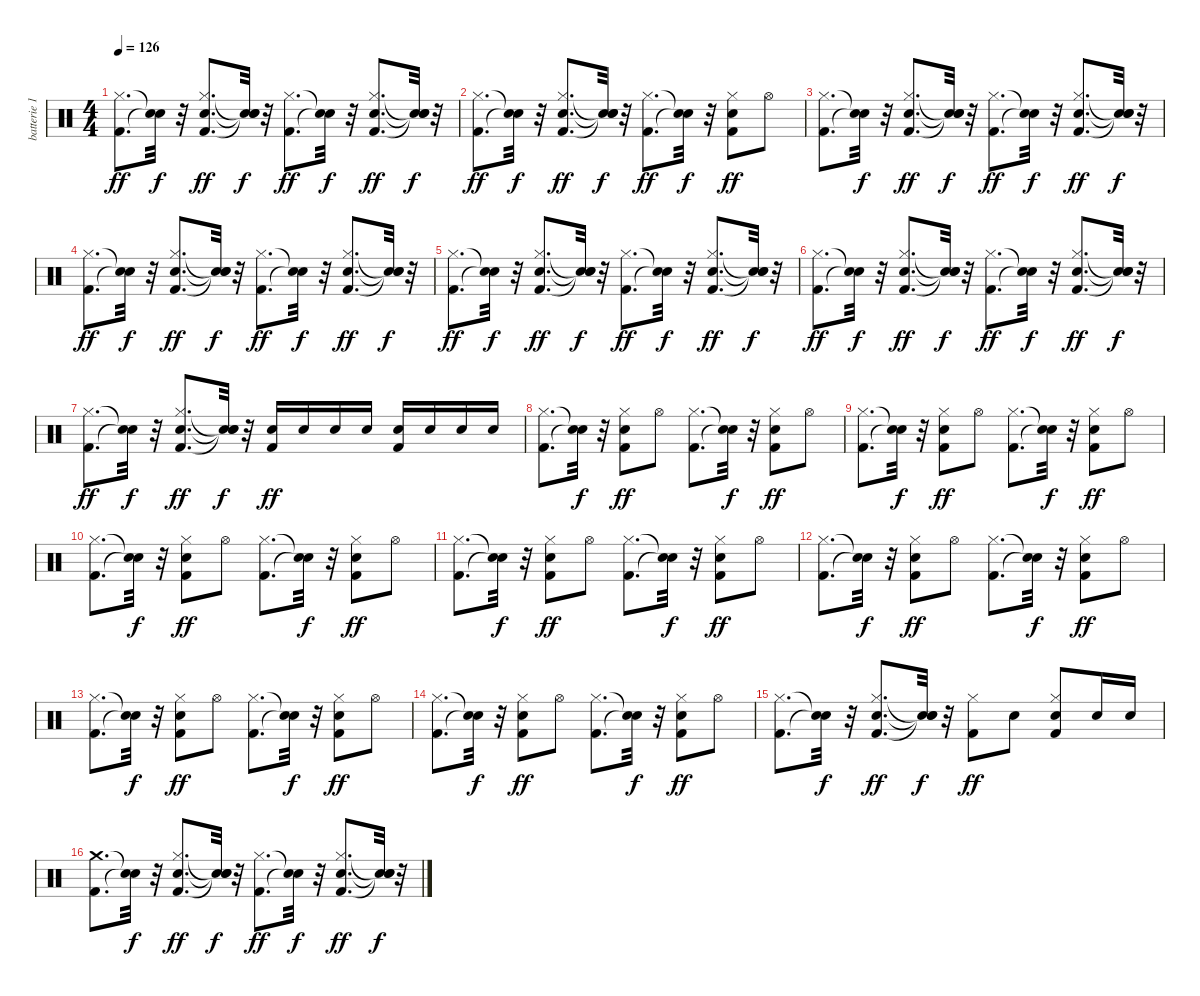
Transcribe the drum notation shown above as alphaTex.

\track ("batterie 1" "batterie 1") {instrument percussion}
\staff {score}
\articulation defaults
\ts (4 4)
\tempo 126
\clef neutral
\ks c
("Kick (hit) 2" "Hi-Hat (closed)").8{d dy ff} ("Snare (hit)"{t} "Snare (hit)"{t}).32{dy f} r.32 ("Kick (hit) 2" "Snare (hit) 2" "Hi-Hat (closed)").8{d dy ff} ("Snare (hit)"{t} "Snare (hit)"{t} "Snare (hit)"{t}).32{dy f} r.32 ("Kick (hit) 2" "Hi-Hat (closed)").8{d dy ff} ("Snare (hit)"{t} "Snare (hit)"{t}).32{dy f} r.32 ("Kick (hit) 2" "Snare (hit) 2" "Hi-Hat (closed)").8{d dy ff} ("Snare (hit)"{t} "Snare (hit)"{t} "Snare (hit)"{t}).32{dy f} r.32 |
("Kick (hit) 2" "Hi-Hat (closed)").8{d dy ff} ("Snare (hit)"{t} "Snare (hit)"{t}).32{dy f} r.32 ("Kick (hit) 2" "Snare (hit) 2" "Hi-Hat (closed)").8{d dy ff} ("Snare (hit)"{t} "Snare (hit)"{t} "Snare (hit)"{t}).32{dy f} r.32 ("Kick (hit) 2" "Hi-Hat (closed)").8{d dy ff} ("Snare (hit)"{t} "Snare (hit)"{t}).32{dy f} r.32 ("Kick (hit) 2" "Snare (hit) 2" "Hi-Hat (closed)").8{dy ff} "Hi-Hat (open)".8 |
("Kick (hit) 2" "Hi-Hat (closed)").8{d} ("Snare (hit)"{t} "Snare (hit)"{t}).32{dy f} r.32 ("Kick (hit) 2" "Snare (hit) 2" "Hi-Hat (closed)").8{d dy ff} ("Snare (hit)"{t} "Snare (hit)"{t} "Snare (hit)"{t}).32{dy f} r.32 ("Kick (hit) 2" "Hi-Hat (closed)").8{d dy ff} ("Snare (hit)"{t} "Snare (hit)"{t}).32{dy f} r.32 ("Kick (hit) 2" "Snare (hit) 2" "Hi-Hat (closed)").8{d dy ff} ("Snare (hit)"{t} "Snare (hit)"{t} "Snare (hit)"{t}).32{dy f} r.32 |
("Kick (hit) 2" "Hi-Hat (closed)").8{d dy ff} ("Snare (hit)"{t} "Snare (hit)"{t}).32{dy f} r.32 ("Kick (hit) 2" "Snare (hit) 2" "Hi-Hat (closed)").8{d dy ff} ("Snare (hit)"{t} "Snare (hit)"{t} "Snare (hit)"{t}).32{dy f} r.32 ("Kick (hit) 2" "Hi-Hat (closed)").8{d dy ff} ("Snare (hit)"{t} "Snare (hit)"{t}).32{dy f} r.32 ("Kick (hit) 2" "Snare (hit) 2" "Hi-Hat (closed)").8{d dy ff} ("Snare (hit)"{t} "Snare (hit)"{t} "Snare (hit)"{t}).32{dy f} r.32 |
("Kick (hit) 2" "Hi-Hat (closed)").8{d dy ff} ("Snare (hit)"{t} "Snare (hit)"{t}).32{dy f} r.32 ("Kick (hit) 2" "Snare (hit) 2" "Hi-Hat (closed)").8{d dy ff} ("Snare (hit)"{t} "Snare (hit)"{t} "Snare (hit)"{t}).32{dy f} r.32 ("Kick (hit) 2" "Hi-Hat (closed)").8{d dy ff} ("Snare (hit)"{t} "Snare (hit)"{t}).32{dy f} r.32 ("Kick (hit) 2" "Snare (hit) 2" "Hi-Hat (closed)").8{d dy ff} ("Snare (hit)"{t} "Snare (hit)"{t} "Snare (hit)"{t}).32{dy f} r.32 |
("Kick (hit) 2" "Hi-Hat (closed)").8{d dy ff} ("Snare (hit)"{t} "Snare (hit)"{t}).32{dy f} r.32 ("Kick (hit) 2" "Snare (hit) 2" "Hi-Hat (closed)").8{d dy ff} ("Snare (hit)"{t} "Snare (hit)"{t} "Snare (hit)"{t}).32{dy f} r.32 ("Kick (hit) 2" "Hi-Hat (closed)").8{d dy ff} ("Snare (hit)"{t} "Snare (hit)"{t}).32{dy f} r.32 ("Kick (hit) 2" "Snare (hit) 2" "Hi-Hat (closed)").8{d dy ff} ("Snare (hit)"{t} "Snare (hit)"{t} "Snare (hit)"{t}).32{dy f} r.32 |
("Kick (hit) 2" "Hi-Hat (closed)").8{d dy ff} ("Snare (hit)"{t} "Snare (hit)"{t}).32{dy f} r.32 ("Kick (hit) 2" "Snare (hit) 2" "Hi-Hat (closed)").8{d dy ff} ("Snare (hit)"{t} "Snare (hit)"{t} "Snare (hit)"{t}).32{dy f} r.32 ("Kick (hit) 2" "Snare (hit) 2").16{dy ff} "Snare (hit) 2".16 "Snare (hit) 2".16 "Snare (hit) 2".16 ("Kick (hit) 2" "Snare (hit) 2").16 "Snare (hit) 2".16 "Snare (hit) 2".16 "Snare (hit) 2".16 |
("Kick (hit) 2" "Hi-Hat (closed)").8{d} ("Snare (hit)"{t} "Snare (hit)"{t}).32{dy f} r.32 ("Kick (hit) 2" "Snare (hit) 2" "Hi-Hat (closed)").8{dy ff} "Hi-Hat (open)".8 ("Kick (hit) 2" "Hi-Hat (closed)").8{d} ("Snare (hit)"{t} "Snare (hit)"{t}).32{dy f} r.32 ("Kick (hit) 2" "Snare (hit) 2" "Hi-Hat (closed)").8{dy ff} "Hi-Hat (open)".8 |
("Kick (hit) 2" "Hi-Hat (closed)").8{d} ("Snare (hit)"{t} "Snare (hit)"{t}).32{dy f} r.32 ("Kick (hit) 2" "Snare (hit) 2" "Hi-Hat (closed)").8{dy ff} "Hi-Hat (open)".8 ("Kick (hit) 2" "Hi-Hat (closed)").8{d} ("Snare (hit)"{t} "Snare (hit)"{t}).32{dy f} r.32 ("Kick (hit) 2" "Snare (hit) 2" "Hi-Hat (closed)").8{dy ff} "Hi-Hat (open)".8 |
("Kick (hit) 2" "Hi-Hat (closed)").8{d} ("Snare (hit)"{t} "Snare (hit)"{t}).32{dy f} r.32 ("Kick (hit) 2" "Snare (hit) 2" "Hi-Hat (closed)").8{dy ff} "Hi-Hat (open)".8 ("Kick (hit) 2" "Hi-Hat (closed)").8{d} ("Snare (hit)"{t} "Snare (hit)"{t}).32{dy f} r.32 ("Kick (hit) 2" "Snare (hit) 2" "Hi-Hat (closed)").8{dy ff} "Hi-Hat (open)".8 |
("Kick (hit) 2" "Hi-Hat (closed)").8{d} ("Snare (hit)"{t} "Snare (hit)"{t}).32{dy f} r.32 ("Kick (hit) 2" "Snare (hit) 2" "Hi-Hat (closed)").8{dy ff} "Hi-Hat (open)".8 ("Kick (hit) 2" "Hi-Hat (closed)").8{d} ("Snare (hit)"{t} "Snare (hit)"{t}).32{dy f} r.32 ("Kick (hit) 2" "Snare (hit) 2" "Hi-Hat (closed)").8{dy ff} "Hi-Hat (open)".8 |
("Kick (hit) 2" "Hi-Hat (closed)").8{d} ("Snare (hit)"{t} "Snare (hit)"{t}).32{dy f} r.32 ("Kick (hit) 2" "Snare (hit) 2" "Hi-Hat (closed)").8{dy ff} "Hi-Hat (open)".8 ("Kick (hit) 2" "Hi-Hat (closed)").8{d} ("Snare (hit)"{t} "Snare (hit)"{t}).32{dy f} r.32 ("Kick (hit) 2" "Snare (hit) 2" "Hi-Hat (closed)").8{dy ff} "Hi-Hat (open)".8 |
("Kick (hit) 2" "Hi-Hat (closed)").8{d} ("Snare (hit)"{t} "Snare (hit)"{t}).32{dy f} r.32 ("Kick (hit) 2" "Snare (hit) 2" "Hi-Hat (closed)").8{dy ff} "Hi-Hat (open)".8 ("Kick (hit) 2" "Hi-Hat (closed)").8{d} ("Snare (hit)"{t} "Snare (hit)"{t}).32{dy f} r.32 ("Kick (hit) 2" "Snare (hit) 2" "Hi-Hat (closed)").8{dy ff} "Hi-Hat (open)".8 |
("Kick (hit) 2" "Hi-Hat (closed)").8{d} ("Snare (hit)"{t} "Snare (hit)"{t}).32{dy f} r.32 ("Kick (hit) 2" "Snare (hit) 2" "Hi-Hat (closed)").8{dy ff} "Hi-Hat (open)".8 ("Kick (hit) 2" "Hi-Hat (closed)").8{d} ("Snare (hit)"{t} "Snare (hit)"{t}).32{dy f} r.32 ("Kick (hit) 2" "Snare (hit) 2" "Hi-Hat (closed)").8{dy ff} "Hi-Hat (open)".8 |
("Kick (hit) 2" "Hi-Hat (closed)").8{d} ("Snare (hit)"{t} "Snare (hit)"{t}).32{dy f} r.32 ("Kick (hit) 2" "Snare (hit) 2" "Hi-Hat (closed)").8{d dy ff} ("Snare (hit)"{t} "Snare (hit)"{t} "Snare (hit)"{t}).32{dy f} r.32 ("Kick (hit) 2" "Hi-Hat (closed)").8{dy ff} "Snare (hit) 2".8 ("Kick (hit) 2" "Snare (hit) 2" "Hi-Hat (closed)").8 "Snare (hit) 2".16 "Snare (hit) 2".16 |
("Kick (hit) 2" "Crash medium (hit)").8{d} ("Snare (hit)"{t} "Snare (hit)"{t}).32{dy f} r.32 ("Kick (hit) 2" "Snare (hit) 2" "Hi-Hat (closed)").8{d dy ff} ("Snare (hit)"{t} "Snare (hit)"{t} "Snare (hit)"{t}).32{dy f} r.32 ("Kick (hit) 2" "Hi-Hat (closed)").8{d dy ff} ("Snare (hit)"{t} "Snare (hit)"{t}).32{dy f} r.32 ("Kick (hit) 2" "Snare (hit) 2" "Hi-Hat (closed)").8{d dy ff} ("Snare (hit)"{t} "Snare (hit)"{t} "Snare (hit)"{t}).32{dy f} r.32
